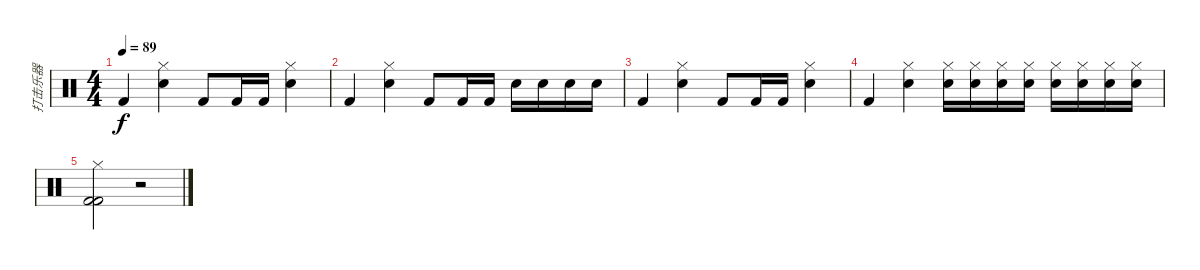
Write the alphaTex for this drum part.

\track ("打击乐器" "打击乐器") {instrument percussion}
\staff {score}
\articulation defaults
\ts (4 4)
\tempo 89
\clef neutral
\ks c "Kick (hit) 2".4{dy f}
("Snare (hit) 2" "Hi-Hat (closed)").4 "Kick (hit) 2".8 "Kick (hit) 2".16 "Kick (hit) 2".16 ("Snare (hit) 2" "Hi-Hat (closed)").4 |
"Kick (hit) 2".4 ("Snare (hit) 2" "Hi-Hat (closed)").4 "Kick (hit) 2".8 "Kick (hit) 2".16 "Kick (hit) 2".16 "Electric Snare (hit)".16 "Electric Snare (hit)".16 "Electric Snare (hit)".16 "Electric Snare (hit)".16 |
"Kick (hit) 2".4 ("Snare (hit) 2" "Hi-Hat (closed)").4 "Kick (hit) 2".8 "Kick (hit) 2".16 "Kick (hit) 2".16 ("Snare (hit) 2" "Hi-Hat (closed)").4 |
"Kick (hit) 2".4 ("Snare (hit) 2" "Hi-Hat (closed)").4 ("Electric Snare (hit)" "Hi-Hat (closed)").16 ("Electric Snare (hit)" "Hi-Hat (closed)").16 ("Electric Snare (hit)" "Hi-Hat (closed)").16 ("Electric Snare (hit)" "Hi-Hat (closed)").16 ("Electric Snare (hit)" "Hi-Hat (closed)").16 ("Electric Snare (hit)" "Hi-Hat (closed)").16 ("Electric Snare (hit)" "Hi-Hat (closed)").16 ("Electric Snare (hit)" "Hi-Hat (closed)").16 |
("Kick (hit) 2" "Kick (hit) 2" "Hi-Hat (closed)").2 r.2
